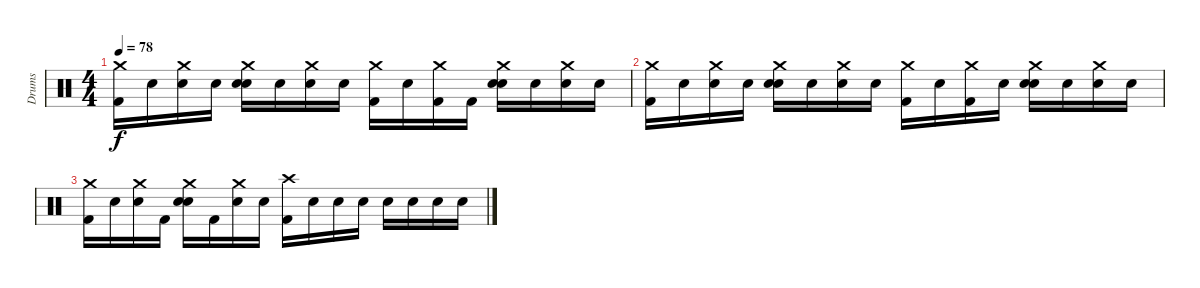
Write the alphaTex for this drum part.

\track ("Drums" "Drums") {instrument percussion}
\staff {score}
\articulation defaults
\ts (4 4)
\tempo 78
\clef neutral
\ks c
("Crash medium (hit)" "Kick (hit) 2").16{dy f} "Snare (hit)".16 ("Crash medium (hit)" "Snare (hit)").16 "Snare (hit)".16 ("Crash medium (hit)" "Snare (hit) 2" "Snare (hit)").16 "Snare (hit)".16 ("Crash medium (hit)" "Snare (hit)").16 "Snare (hit)".16 ("Crash medium (hit)" "Kick (hit) 2").16 "Snare (hit)".16 ("Crash medium (hit)" "Kick (hit) 2").16 "Kick (hit) 2".16 ("Crash medium (hit)" "Snare (hit) 2" "Snare (hit)").16 "Snare (hit)".16 ("Crash medium (hit)" "Snare (hit)").16 "Snare (hit)".16 |
("Crash medium (hit)" "Kick (hit) 2").16 "Snare (hit)".16 ("Crash medium (hit)" "Snare (hit)").16 "Snare (hit)".16 ("Crash medium (hit)" "Snare (hit) 2" "Snare (hit)").16 "Snare (hit)".16 ("Crash medium (hit)" "Snare (hit)").16 "Snare (hit)".16 ("Crash medium (hit)" "Kick (hit) 2").16 "Snare (hit)".16 ("Crash medium (hit)" "Kick (hit) 2").16 "Snare (hit)".16 ("Crash medium (hit)" "Snare (hit) 2" "Snare (hit)").16 "Snare (hit)".16 ("Crash medium (hit)" "Snare (hit)").16 "Snare (hit)".16 |
("Crash medium (hit)" "Kick (hit) 2").16 "Snare (hit)".16 ("Crash medium (hit)" "Snare (hit)").16 "Kick (hit) 2".16 ("Crash medium (hit)" "Snare (hit) 2" "Snare (hit)").16 "Kick (hit) 2".16 ("Crash medium (hit)" "Snare (hit) 2").16 "Snare (hit)".16 ("Crash high (hit)" "Kick (hit) 2").16 "Snare (hit)".16 "Snare (hit)".16 "Snare (hit)".16 "Snare (hit)".16 "Snare (hit)".16 "Snare (hit)".16 "Snare (hit)".16
